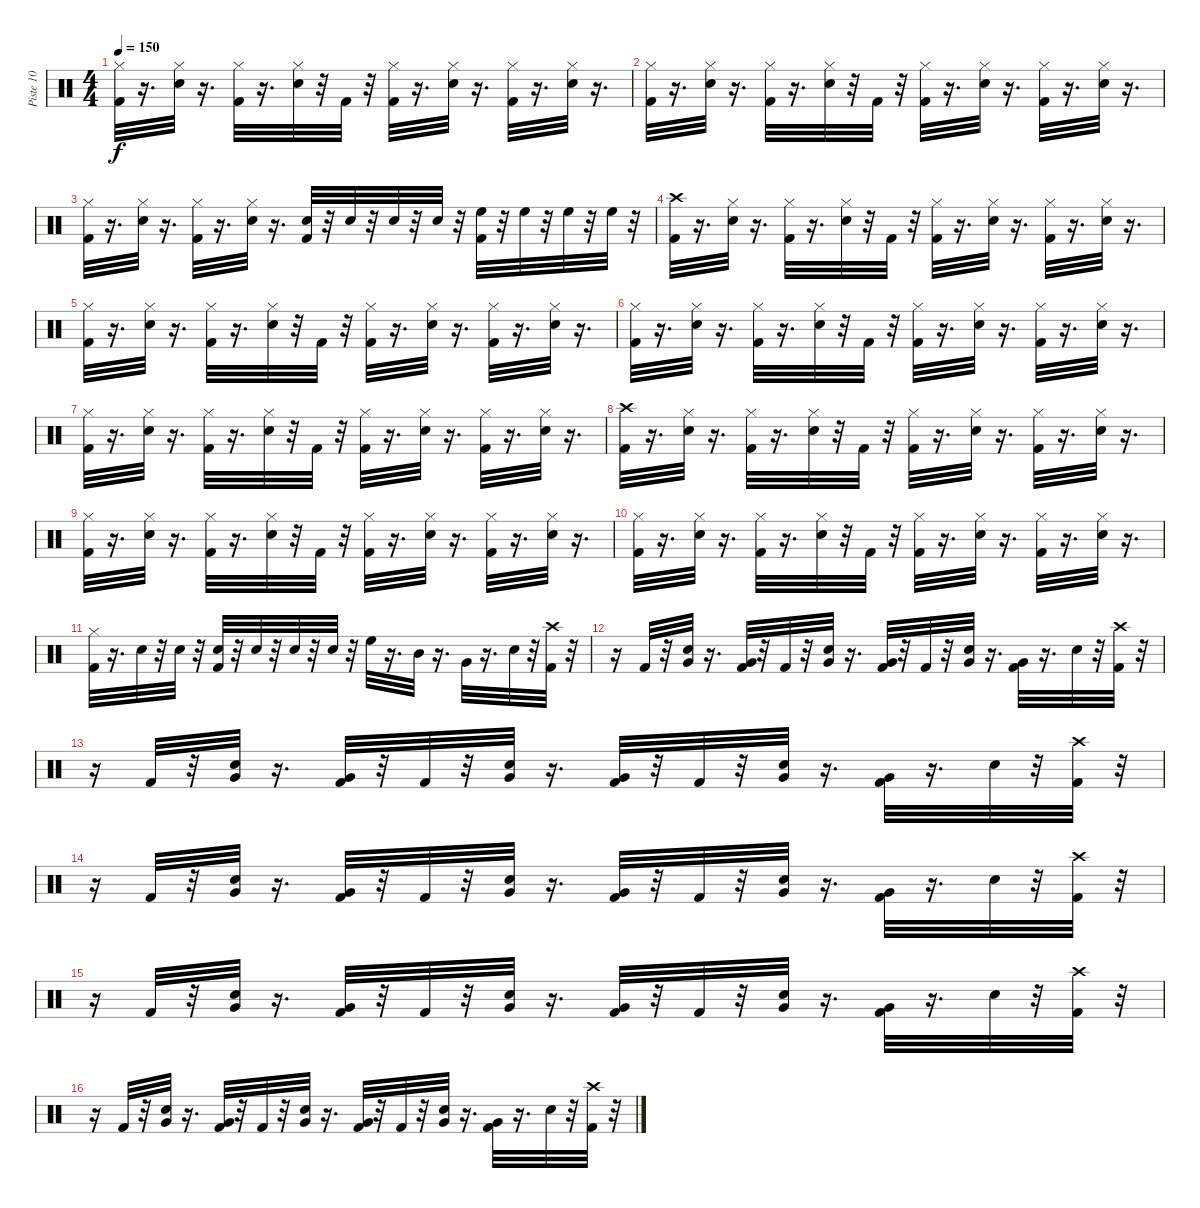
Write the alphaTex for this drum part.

\track ("Piste 10" "Piste 10") {instrument percussion}
\staff {score}
\articulation defaults
\ts (4 4)
\tempo 150
\clef neutral
\ks c
("Hi-Hat (closed)" "Kick (hit) 2").32{dy f} r.16{d} ("Hi-Hat (closed)" "Snare (hit) 2").32 r.16{d} ("Hi-Hat (closed)" "Kick (hit) 2").32 r.16{d} ("Hi-Hat (closed)" "Snare (hit) 2").32 r.32 "Kick (hit) 2".32 r.32 ("Hi-Hat (closed)" "Kick (hit) 2").32 r.16{d} ("Hi-Hat (closed)" "Snare (hit) 2").32 r.16{d} ("Hi-Hat (closed)" "Kick (hit) 2").32 r.16{d} ("Hi-Hat (closed)" "Snare (hit) 2").32 r.16{d} |
("Hi-Hat (closed)" "Kick (hit) 2").32 r.16{d} ("Hi-Hat (closed)" "Snare (hit) 2").32 r.16{d} ("Hi-Hat (closed)" "Kick (hit) 2").32 r.16{d} ("Hi-Hat (closed)" "Snare (hit) 2").32 r.32 "Kick (hit) 2".32 r.32 ("Hi-Hat (closed)" "Kick (hit) 2").32 r.16{d} ("Hi-Hat (closed)" "Snare (hit) 2").32 r.16{d} ("Hi-Hat (closed)" "Kick (hit) 2").32 r.16{d} ("Hi-Hat (closed)" "Snare (hit) 2").32 r.16{d} |
("Hi-Hat (closed)" "Kick (hit) 2").32 r.16{d} ("Hi-Hat (closed)" "Snare (hit) 2").32 r.16{d} ("Hi-Hat (closed)" "Kick (hit) 2").32 r.16{d} ("Hi-Hat (closed)" "Snare (hit) 2").32 r.16{d} ("Kick (hit) 2" "Snare (hit) 2").32 r.32 "Snare (hit) 2".32 r.32 "Snare (hit) 2".32 r.32 "Snare (hit) 2".32 r.32 ("High Floor Tom (hit)" "Kick (hit) 2").32 r.32 "High Floor Tom (hit)".32 r.32 "High Floor Tom (hit)".32 r.32 "High Floor Tom (hit)".32 r.32 |
("Crash high (hit)" "Kick (hit) 2").32 r.16{d} ("Hi-Hat (closed)" "Snare (hit) 2").32 r.16{d} ("Hi-Hat (closed)" "Kick (hit) 2").32 r.16{d} ("Hi-Hat (closed)" "Snare (hit) 2").32 r.32 "Kick (hit) 2".32 r.32 ("Hi-Hat (closed)" "Kick (hit) 2").32 r.16{d} ("Hi-Hat (closed)" "Snare (hit) 2").32 r.16{d} ("Hi-Hat (closed)" "Kick (hit) 2").32 r.16{d} ("Hi-Hat (closed)" "Snare (hit) 2").32 r.16{d} |
("Hi-Hat (closed)" "Kick (hit) 2").32 r.16{d} ("Hi-Hat (closed)" "Snare (hit) 2").32 r.16{d} ("Hi-Hat (closed)" "Kick (hit) 2").32 r.16{d} ("Hi-Hat (closed)" "Snare (hit) 2").32 r.32 "Kick (hit) 2".32 r.32 ("Hi-Hat (closed)" "Kick (hit) 2").32 r.16{d} ("Hi-Hat (closed)" "Snare (hit) 2").32 r.16{d} ("Hi-Hat (closed)" "Kick (hit) 2").32 r.16{d} ("Hi-Hat (closed)" "Snare (hit) 2").32 r.16{d} |
("Hi-Hat (closed)" "Kick (hit) 2").32 r.16{d} ("Hi-Hat (closed)" "Snare (hit) 2").32 r.16{d} ("Hi-Hat (closed)" "Kick (hit) 2").32 r.16{d} ("Hi-Hat (closed)" "Snare (hit) 2").32 r.32 "Kick (hit) 2".32 r.32 ("Hi-Hat (closed)" "Kick (hit) 2").32 r.16{d} ("Hi-Hat (closed)" "Snare (hit) 2").32 r.16{d} ("Hi-Hat (closed)" "Kick (hit) 2").32 r.16{d} ("Hi-Hat (closed)" "Snare (hit) 2").32 r.16{d} |
("Hi-Hat (closed)" "Kick (hit) 2").32 r.16{d} ("Hi-Hat (closed)" "Snare (hit) 2").32 r.16{d} ("Hi-Hat (closed)" "Kick (hit) 2").32 r.16{d} ("Hi-Hat (closed)" "Snare (hit) 2").32 r.32 "Kick (hit) 2".32 r.32 ("Hi-Hat (closed)" "Kick (hit) 2").32 r.16{d} ("Hi-Hat (closed)" "Snare (hit) 2").32 r.16{d} ("Hi-Hat (closed)" "Kick (hit) 2").32 r.16{d} ("Hi-Hat (closed)" "Snare (hit) 2").32 r.16{d} |
("Crash high (hit)" "Kick (hit) 2").32 r.16{d} ("Hi-Hat (closed)" "Snare (hit) 2").32 r.16{d} ("Hi-Hat (closed)" "Kick (hit) 2").32 r.16{d} ("Hi-Hat (closed)" "Snare (hit) 2").32 r.32 "Kick (hit) 2".32 r.32 ("Hi-Hat (closed)" "Kick (hit) 2").32 r.16{d} ("Hi-Hat (closed)" "Snare (hit) 2").32 r.16{d} ("Hi-Hat (closed)" "Kick (hit) 2").32 r.16{d} ("Hi-Hat (closed)" "Snare (hit) 2").32 r.16{d} |
("Hi-Hat (closed)" "Kick (hit) 2").32 r.16{d} ("Hi-Hat (closed)" "Snare (hit) 2").32 r.16{d} ("Hi-Hat (closed)" "Kick (hit) 2").32 r.16{d} ("Hi-Hat (closed)" "Snare (hit) 2").32 r.32 "Kick (hit) 2".32 r.32 ("Hi-Hat (closed)" "Kick (hit) 2").32 r.16{d} ("Hi-Hat (closed)" "Snare (hit) 2").32 r.16{d} ("Hi-Hat (closed)" "Kick (hit) 2").32 r.16{d} ("Hi-Hat (closed)" "Snare (hit) 2").32 r.16{d} |
("Hi-Hat (closed)" "Kick (hit) 2").32 r.16{d} ("Hi-Hat (closed)" "Snare (hit) 2").32 r.16{d} ("Hi-Hat (closed)" "Kick (hit) 2").32 r.16{d} ("Hi-Hat (closed)" "Snare (hit) 2").32 r.32 "Kick (hit) 2".32 r.32 ("Hi-Hat (closed)" "Kick (hit) 2").32 r.16{d} ("Hi-Hat (closed)" "Snare (hit) 2").32 r.16{d} ("Hi-Hat (closed)" "Kick (hit) 2").32 r.16{d} ("Hi-Hat (closed)" "Snare (hit) 2").32 r.16{d} |
("Hi-Hat (closed)" "Kick (hit) 2").32 r.16{d} "Snare (hit) 2".32 r.32 "Snare (hit) 2".32 r.32 ("Kick (hit) 2" "Snare (hit) 2").32 r.32 "Snare (hit) 2".32 r.32 "Snare (hit) 2".32 r.32 "Snare (hit) 2".32 r.32 "High Floor Tom (hit)".32 r.16{d} "Mid Tom (hit)".32 r.16{d} "Very Low Tom (hit)".32 r.16{d} "Snare (hit) 2".32 r.32 ("Kick (hit) 2" "Crash high (hit)").32 r.32 |
r.16 "Kick (hit) 2".32 r.32 ("Very Low Tom (hit)" "Snare (hit) 2").32 r.16{d} ("Kick (hit) 2" "Very Low Tom (hit)").32 r.32 "Kick (hit) 2".32 r.32 ("Very Low Tom (hit)" "Snare (hit) 2").32 r.16{d} ("Kick (hit) 2" "Very Low Tom (hit)").32 r.32 "Kick (hit) 2".32 r.32 ("Very Low Tom (hit)" "Snare (hit) 2").32 r.16{d} ("Kick (hit) 2" "Very Low Tom (hit)").32 r.16{d} "Snare (hit) 2".32 r.32 ("Kick (hit) 2" "Crash high (hit)").32 r.32 |
r.16 "Kick (hit) 2".32 r.32 ("Very Low Tom (hit)" "Snare (hit) 2").32 r.16{d} ("Kick (hit) 2" "Very Low Tom (hit)").32 r.32 "Kick (hit) 2".32 r.32 ("Very Low Tom (hit)" "Snare (hit) 2").32 r.16{d} ("Kick (hit) 2" "Very Low Tom (hit)").32 r.32 "Kick (hit) 2".32 r.32 ("Very Low Tom (hit)" "Snare (hit) 2").32 r.16{d} ("Kick (hit) 2" "Very Low Tom (hit)").32 r.16{d} "Snare (hit) 2".32 r.32 ("Kick (hit) 2" "Crash high (hit)").32 r.32 |
r.16 "Kick (hit) 2".32 r.32 ("Very Low Tom (hit)" "Snare (hit) 2").32 r.16{d} ("Kick (hit) 2" "Very Low Tom (hit)").32 r.32 "Kick (hit) 2".32 r.32 ("Very Low Tom (hit)" "Snare (hit) 2").32 r.16{d} ("Kick (hit) 2" "Very Low Tom (hit)").32 r.32 "Kick (hit) 2".32 r.32 ("Very Low Tom (hit)" "Snare (hit) 2").32 r.16{d} ("Kick (hit) 2" "Very Low Tom (hit)").32 r.16{d} "Snare (hit) 2".32 r.32 ("Kick (hit) 2" "Crash high (hit)").32 r.32 |
r.16 "Kick (hit) 2".32 r.32 ("Very Low Tom (hit)" "Snare (hit) 2").32 r.16{d} ("Kick (hit) 2" "Very Low Tom (hit)").32 r.32 "Kick (hit) 2".32 r.32 ("Very Low Tom (hit)" "Snare (hit) 2").32 r.16{d} ("Kick (hit) 2" "Very Low Tom (hit)").32 r.32 "Kick (hit) 2".32 r.32 ("Very Low Tom (hit)" "Snare (hit) 2").32 r.16{d} ("Kick (hit) 2" "Very Low Tom (hit)").32 r.16{d} "Snare (hit) 2".32 r.32 ("Kick (hit) 2" "Crash high (hit)").32 r.32 |
r.16 "Kick (hit) 2".32 r.32 ("Very Low Tom (hit)" "Snare (hit) 2").32 r.16{d} ("Kick (hit) 2" "Very Low Tom (hit)").32 r.32 "Kick (hit) 2".32 r.32 ("Very Low Tom (hit)" "Snare (hit) 2").32 r.16{d} ("Kick (hit) 2" "Very Low Tom (hit)").32 r.32 "Kick (hit) 2".32 r.32 ("Very Low Tom (hit)" "Snare (hit) 2").32 r.16{d} ("Kick (hit) 2" "Very Low Tom (hit)").32 r.16{d} "Snare (hit) 2".32 r.32 ("Kick (hit) 2" "Crash high (hit)").32 r.32
